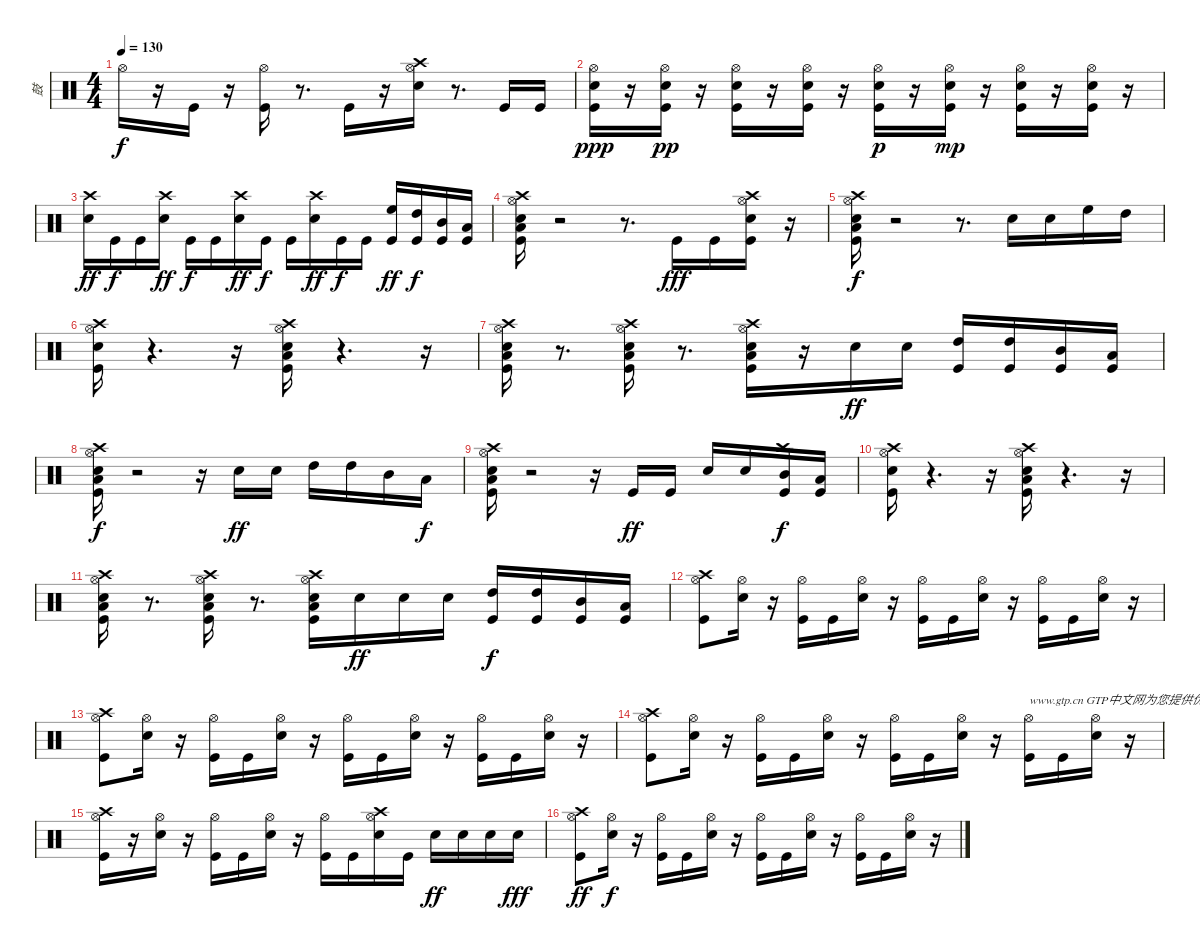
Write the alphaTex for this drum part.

\track ("鼓" "鼓") {instrument percussion}
\staff {score}
\articulation defaults
\ts (4 4)
\tempo 130
\clef neutral
\ks c "Hi-Hat (open)".16{dy f}
r.16 "Kick (hit)".16 r.16 ("Hi-Hat (open)" "Kick (hit)").16 r.8{d} "Kick (hit)".16 r.16 ("Hi-Hat (open)" "Snare (hit) 2" "Crash high (hit)").16 r.8{d} "Kick (hit)".16 "Kick (hit)".16 |
("Hi-Hat (open)" "Snare (hit) 2" "Kick (hit)").16{dy ppp} r.16 ("Hi-Hat (open)" "Snare (hit) 2" "Kick (hit)").16{dy pp} r.16 ("Hi-Hat (open)" "Snare (hit) 2" "Kick (hit)").16 r.16 ("Hi-Hat (open)" "Snare (hit) 2" "Kick (hit)").16 r.16 ("Hi-Hat (open)" "Snare (hit) 2" "Kick (hit)").16{dy p} r.16 ("Hi-Hat (open)" "Snare (hit) 2" "Kick (hit)").16{dy mp} r.16 ("Hi-Hat (open)" "Snare (hit) 2" "Kick (hit)").16 r.16 ("Hi-Hat (open)" "Snare (hit) 2" "Kick (hit)").16 r.16 |
("Crash high (hit)" "Snare (hit) 2").16{dy ff} "Kick (hit)".16{dy f} "Kick (hit)".16 ("Crash high (hit)" "Snare (hit) 2").16{dy ff} "Kick (hit)".16{dy f} "Kick (hit)".16 ("Crash high (hit)" "Snare (hit) 2").16{dy ff} "Kick (hit)".16{dy f} "Kick (hit)".16 ("Crash high (hit)" "Snare (hit) 2").16{dy ff} "Kick (hit)".16{dy f} "Kick (hit)".16 ("High Floor Tom (hit)" "Kick (hit)").16{dy ff} ("High Tom (hit)" "Kick (hit)").16{dy f} ("Mid Tom (hit)" "Kick (hit)").16 ("Low Tom (hit)" "Kick (hit)").16 |
("Low Tom (hit)" "Crash high (hit)" "Hi-Hat (open)" "Snare (hit) 2" "Kick (hit)").16 r.2 r.8{d} "Kick (hit)".16{dy fff} "Kick (hit)".16 ("Snare (hit) 2" "Crash high (hit)" "Hi-Hat (open)" "Kick (hit)").16 r.16 |
("Low Tom (hit)" "Crash high (hit)" "Hi-Hat (open)" "Snare (hit) 2" "Kick (hit)").16{dy f} r.2 r.8{d} "Snare (hit) 2".16 "Snare (hit) 2".16 "High Floor Tom (hit)".16 "High Tom (hit)".16 |
("Crash high (hit)" "Hi-Hat (open)" "Snare (hit) 2" "Kick (hit)").16 r.4{d} r.16 ("Low Tom (hit)" "Crash high (hit)" "Hi-Hat (open)" "Snare (hit) 2" "Kick (hit)").16 r.4{d} r.16 |
("Low Tom (hit)" "Crash high (hit)" "Hi-Hat (open)" "Snare (hit) 2" "Kick (hit)").16 r.8{d} ("Low Tom (hit)" "Crash high (hit)" "Hi-Hat (open)" "Snare (hit) 2" "Kick (hit)").16 r.8{d} ("Low Tom (hit)" "Crash high (hit)" "Hi-Hat (open)" "Snare (hit) 2" "Kick (hit)").16 r.16 "Snare (hit) 2".16{dy ff} "Snare (hit) 2".16 ("High Tom (hit)" "Kick (hit)").16 ("High Tom (hit)" "Kick (hit)").16 ("Mid Tom (hit)" "Kick (hit)").16 ("Low Tom (hit)" "Kick (hit)").16 |
("Low Tom (hit)" "Crash high (hit)" "Hi-Hat (open)" "Snare (hit) 2" "Kick (hit)").16{dy f} r.2 r.16 "Snare (hit) 2".16{dy ff} "Snare (hit) 2".16 "High Tom (hit)".16 "High Tom (hit)".16 "Mid Tom (hit)".16 "Low Tom (hit)".16{dy f} |
("Low Tom (hit)" "Crash high (hit)" "Hi-Hat (open)" "Snare (hit) 2" "Kick (hit)").16 r.2 r.16 "Kick (hit)".16{dy ff} "Kick (hit)".16 "Snare (hit) 2".16 "Snare (hit) 2".16 ("Crash high (hit)" "Kick (hit)" "Mid Tom (hit)").16{dy f} ("Low Tom (hit)" "Kick (hit)").16 |
("Crash high (hit)" "Hi-Hat (open)" "Snare (hit) 2" "Kick (hit)").16 r.4{d} r.16 ("Low Tom (hit)" "Crash high (hit)" "Hi-Hat (open)" "Snare (hit) 2" "Kick (hit)").16 r.4{d} r.16 |
("Low Tom (hit)" "Crash high (hit)" "Hi-Hat (open)" "Snare (hit) 2" "Kick (hit)").16 r.8{d} ("Low Tom (hit)" "Crash high (hit)" "Hi-Hat (open)" "Snare (hit) 2" "Kick (hit)").16 r.8{d} ("Low Tom (hit)" "Crash high (hit)" "Hi-Hat (open)" "Snare (hit) 2" "Kick (hit)").16 "Snare (hit) 2".16{dy ff} "Snare (hit) 2".16 "Snare (hit) 2".16 ("Kick (hit)" "High Tom (hit)").16{dy f} ("Kick (hit)" "High Tom (hit)").16 ("Kick (hit)" "Mid Tom (hit)").16 ("Kick (hit)" "Low Tom (hit)").16 |
("Crash high (hit)" "Hi-Hat (open)" "Kick (hit)").8 ("Hi-Hat (open)" "Snare (hit) 2").16 r.16 ("Hi-Hat (open)" "Kick (hit)").16 "Kick (hit)".16 ("Hi-Hat (open)" "Snare (hit) 2").16 r.16 ("Hi-Hat (open)" "Kick (hit)").16 "Kick (hit)".16 ("Hi-Hat (open)" "Snare (hit) 2").16 r.16 ("Hi-Hat (open)" "Kick (hit)").16 "Kick (hit)".16 ("Hi-Hat (open)" "Snare (hit) 2").16 r.16 |
("Crash high (hit)" "Hi-Hat (open)" "Kick (hit)").8 ("Hi-Hat (open)" "Snare (hit) 2").16 r.16 ("Hi-Hat (open)" "Kick (hit)").16 "Kick (hit)".16 ("Hi-Hat (open)" "Snare (hit) 2").16 r.16 ("Hi-Hat (open)" "Kick (hit)").16 "Kick (hit)".16 ("Hi-Hat (open)" "Snare (hit) 2").16 r.16 ("Hi-Hat (open)" "Kick (hit)").16 "Kick (hit)".16 ("Hi-Hat (open)" "Snare (hit) 2").16 r.16 |
("Hi-Hat (open)" "Crash high (hit)" "Kick (hit)").8 ("Hi-Hat (open)" "Snare (hit) 2").16 r.16 ("Hi-Hat (open)" "Kick (hit)").16 "Kick (hit)".16 ("Hi-Hat (open)" "Snare (hit) 2").16 r.16 ("Hi-Hat (open)" "Kick (hit)").16 "Kick (hit)".16 ("Hi-Hat (open)" "Snare (hit) 2").16 r.16 ("Hi-Hat (open)" "Kick (hit)").16{txt "www.gtp.cn GTP中文网为您提供优秀的谱子"} "Kick (hit)".16 ("Hi-Hat (open)" "Snare (hit) 2").16 r.16 |
("Crash high (hit)" "Hi-Hat (open)" "Kick (hit)").16 r.16 ("Hi-Hat (open)" "Snare (hit) 2").16 r.16 ("Hi-Hat (open)" "Kick (hit)").16 "Kick (hit)".16 ("Hi-Hat (open)" "Snare (hit) 2").16 r.16 ("Hi-Hat (open)" "Kick (hit)").16 "Kick (hit)".16 ("Crash high (hit)" "Hi-Hat (open)" "Snare (hit) 2").16 "Kick (hit)".16 "Snare (hit) 2".16{dy ff} "Snare (hit) 2".16 "Snare (hit) 2".16 "Snare (hit) 2".16{dy fff} |
("Hi-Hat (open)" "Crash high (hit)" "Kick (hit)").8{dy ff} ("Hi-Hat (open)" "Snare (hit) 2").16{dy f} r.16 ("Hi-Hat (open)" "Kick (hit)").16 "Kick (hit)".16 ("Hi-Hat (open)" "Snare (hit) 2").16 r.16 ("Hi-Hat (open)" "Kick (hit)").16 "Kick (hit)".16 ("Hi-Hat (open)" "Snare (hit) 2").16 r.16 ("Hi-Hat (open)" "Kick (hit)").16 "Kick (hit)".16 ("Hi-Hat (open)" "Snare (hit) 2").16 r.16
